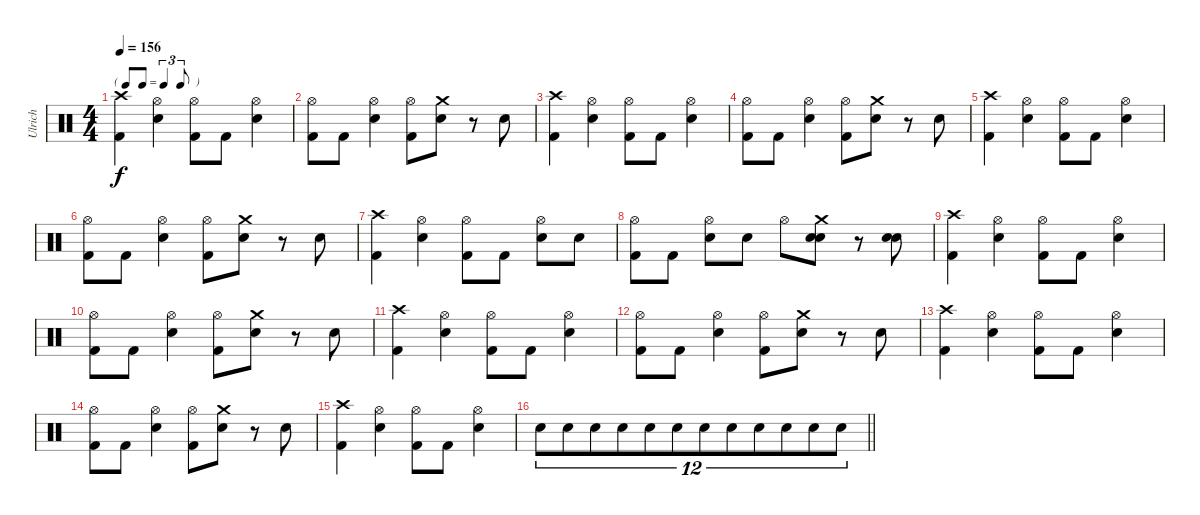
\track ("Ulrich" "Ulrich") {instrument percussion}
\staff {score}
\articulation defaults
\ts (4 4)
\tf triplet8th
\tempo 156
\clef neutral
\ks c
("Crash high (hit)" "Kick (hit) 2").4{dy f} ("Hi-Hat (open)" "Electric Snare (hit)").4 ("Hi-Hat (open)" "Kick (hit) 2").8 "Kick (hit) 2".8 ("Hi-Hat (open)" "Electric Snare (hit)").4 |
("Hi-Hat (open)" "Kick (hit) 2").8 "Kick (hit) 2".8 ("Hi-Hat (open)" "Electric Snare (hit)").4 ("Hi-Hat (open)" "Kick (hit) 2").8 ("Crash medium (hit)" "Electric Snare (hit)").8 r.8 "Electric Snare (hit)".8 |
("Crash high (hit)" "Kick (hit) 2").4 ("Hi-Hat (open)" "Electric Snare (hit)").4 ("Hi-Hat (open)" "Kick (hit) 2").8 "Kick (hit) 2".8 ("Hi-Hat (open)" "Electric Snare (hit)").4 |
("Hi-Hat (open)" "Kick (hit) 2").8 "Kick (hit) 2".8 ("Hi-Hat (open)" "Electric Snare (hit)").4 ("Hi-Hat (open)" "Kick (hit) 2").8 ("Crash medium (hit)" "Electric Snare (hit)").8 r.8 "Electric Snare (hit)".8 |
("Crash high (hit)" "Kick (hit) 2").4 ("Hi-Hat (open)" "Electric Snare (hit)").4 ("Hi-Hat (open)" "Kick (hit) 2").8 "Kick (hit) 2".8 ("Hi-Hat (open)" "Electric Snare (hit)").4 |
("Hi-Hat (open)" "Kick (hit) 2").8 "Kick (hit) 2".8 ("Hi-Hat (open)" "Electric Snare (hit)").4 ("Hi-Hat (open)" "Kick (hit) 2").8 ("Crash medium (hit)" "Electric Snare (hit)").8 r.8 "Electric Snare (hit)".8 |
("Crash high (hit)" "Kick (hit) 2").4 ("Hi-Hat (open)" "Electric Snare (hit)").4 ("Hi-Hat (open)" "Kick (hit) 2").8 "Kick (hit) 2".8 ("Hi-Hat (open)" "Electric Snare (hit)").8 "Electric Snare (hit)".8 |
("Hi-Hat (open)" "Kick (hit) 2").8 "Kick (hit) 2".8 ("Hi-Hat (open)" "Electric Snare (hit)").8 "Electric Snare (hit)".8 "Hi-Hat (open)".8 ("Crash medium (hit)" "Electric Snare (hit)" "Snare (hit)").8 r.8 ("Electric Snare (hit)" "Snare (hit)").8 |
("Crash high (hit)" "Kick (hit) 2").4 ("Hi-Hat (open)" "Electric Snare (hit)").4 ("Hi-Hat (open)" "Kick (hit) 2").8 "Kick (hit) 2".8 ("Hi-Hat (open)" "Electric Snare (hit)").4 |
("Hi-Hat (open)" "Kick (hit) 2").8 "Kick (hit) 2".8 ("Hi-Hat (open)" "Electric Snare (hit)").4 ("Hi-Hat (open)" "Kick (hit) 2").8 ("Crash medium (hit)" "Electric Snare (hit)").8 r.8 "Electric Snare (hit)".8 |
("Crash high (hit)" "Kick (hit) 2").4 ("Hi-Hat (open)" "Electric Snare (hit)").4 ("Hi-Hat (open)" "Kick (hit) 2").8 "Kick (hit) 2".8 ("Hi-Hat (open)" "Electric Snare (hit)").4 |
("Hi-Hat (open)" "Kick (hit) 2").8 "Kick (hit) 2".8 ("Hi-Hat (open)" "Electric Snare (hit)").4 ("Hi-Hat (open)" "Kick (hit) 2").8 ("Crash medium (hit)" "Electric Snare (hit)").8 r.8 "Electric Snare (hit)".8 |
("Crash high (hit)" "Kick (hit) 2").4 ("Hi-Hat (open)" "Electric Snare (hit)").4 ("Hi-Hat (open)" "Kick (hit) 2").8 "Kick (hit) 2".8 ("Hi-Hat (open)" "Electric Snare (hit)").4 |
("Hi-Hat (open)" "Kick (hit) 2").8 "Kick (hit) 2".8 ("Hi-Hat (open)" "Electric Snare (hit)").4 ("Hi-Hat (open)" "Kick (hit) 2").8 ("Crash medium (hit)" "Electric Snare (hit)").8 r.8 "Electric Snare (hit)".8 |
("Crash high (hit)" "Kick (hit) 2").4 ("Hi-Hat (open)" "Electric Snare (hit)").4 ("Hi-Hat (open)" "Kick (hit) 2").8 "Kick (hit) 2".8 ("Hi-Hat (open)" "Electric Snare (hit)").4 |
\barLineRight lightlight "Electric Snare (hit)".8{tu (12 8)} "Electric Snare (hit)".8{tu (12 8)} "Electric Snare (hit)".8{tu (12 8)} "Electric Snare (hit)".8{tu (12 8)} "Electric Snare (hit)".8{tu (12 8)} "Electric Snare (hit)".8{tu (12 8)} "Electric Snare (hit)".8{tu (12 8)} "Electric Snare (hit)".8{tu (12 8)} "Electric Snare (hit)".8{tu (12 8)} "Electric Snare (hit)".8{tu (12 8)} "Electric Snare (hit)".8{tu (12 8)} "Electric Snare (hit)".8{tu (12 8)}
